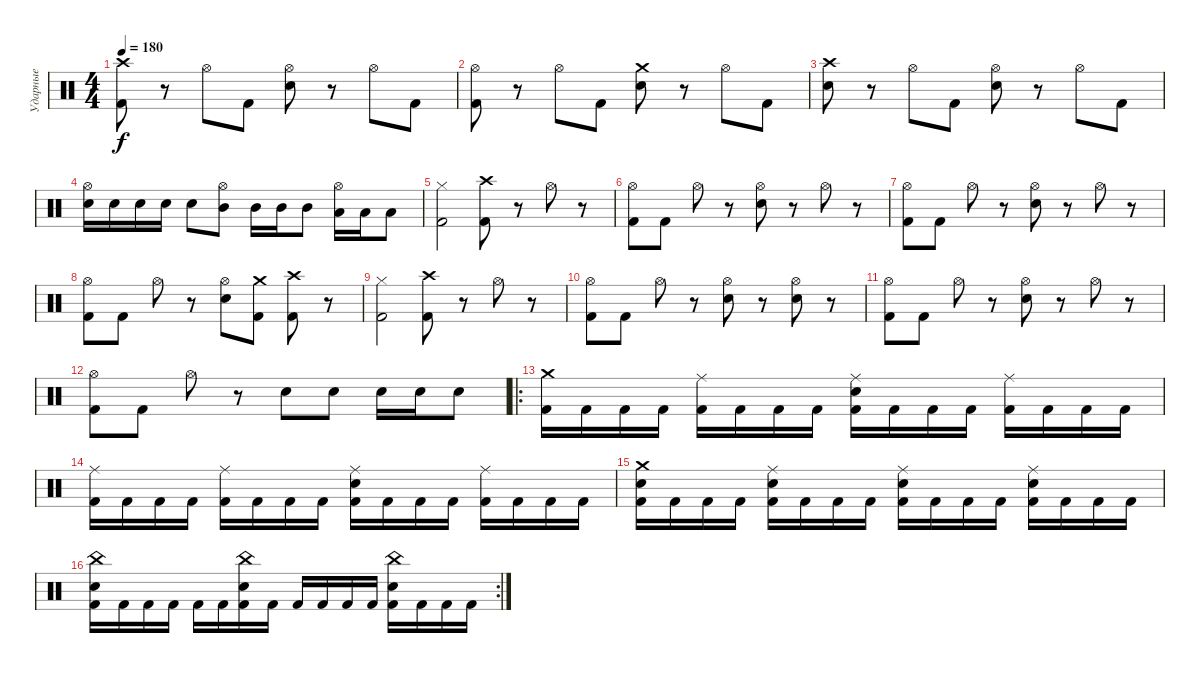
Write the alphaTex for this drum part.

\track ("Ударные" "Ударные") {instrument percussion}
\staff {score}
\articulation defaults
\ts (4 4)
\tempo 180
\clef neutral
\ks c
("Kick (hit) 2" "Crash high (hit)").8{dy f} r.8 "Hi-Hat (open)".8 "Kick (hit) 2".8 ("Electric Snare (hit)" "Hi-Hat (open)").8 r.8 "Hi-Hat (open)".8 "Kick (hit) 2".8 |
("Kick (hit) 2" "Hi-Hat (open)").8 r.8 "Hi-Hat (open)".8 "Kick (hit) 2".8 ("Electric Snare (hit)" "Crash medium (hit)").8 r.8 "Hi-Hat (open)".8 "Kick (hit) 2".8 |
("Electric Snare (hit)" "Crash high (hit)").8 r.8 "Hi-Hat (open)".8 "Kick (hit) 2".8 ("Electric Snare (hit)" "Hi-Hat (open)").8 r.8 "Hi-Hat (open)".8 "Kick (hit) 2".8 |
("Electric Snare (hit)" "Hi-Hat (open)").16 "Electric Snare (hit)".16 "Electric Snare (hit)".16 "Electric Snare (hit)".16 "Electric Snare (hit)".8 ("Mid Tom (hit)" "Hi-Hat (open)").8 "Mid Tom (hit)".16 "Mid Tom (hit)".16 "Mid Tom (hit)".8 ("Low Tom (hit)" "Hi-Hat (open)").16 "Low Tom (hit)".16 "Low Tom (hit)".8 |
("Kick (hit) 2" "Hi-Hat (closed)").2 ("Kick (hit) 2" "Crash high (hit)").8 r.8 "Hi-Hat (open)".8 r.8 |
("Kick (hit) 2" "Hi-Hat (open)").8 "Kick (hit) 2".8 "Hi-Hat (open)".8 r.8 ("Electric Snare (hit)" "Hi-Hat (open)").8 r.8 "Hi-Hat (open)".8 r.8 |
("Kick (hit) 2" "Hi-Hat (open)").8 "Kick (hit) 2".8 "Hi-Hat (open)".8 r.8 ("Electric Snare (hit)" "Hi-Hat (open)").8 r.8 "Hi-Hat (open)".8 r.8 |
("Kick (hit) 2" "Hi-Hat (open)").8 "Kick (hit) 2".8 "Hi-Hat (open)".8 r.8 ("Electric Snare (hit)" "Hi-Hat (open)").8 ("Crash medium (hit)" "Kick (hit) 2").8 ("Crash high (hit)" "Kick (hit) 2").8 r.8 |
("Kick (hit) 2" "Hi-Hat (closed)").2 ("Kick (hit) 2" "Crash high (hit)").8 r.8 "Hi-Hat (open)".8 r.8 |
("Kick (hit) 2" "Hi-Hat (open)").8 "Kick (hit) 2".8 "Hi-Hat (open)".8 r.8 ("Electric Snare (hit)" "Hi-Hat (open)").8 r.8 ("Electric Snare (hit)" "Hi-Hat (open)").8 r.8 |
("Kick (hit) 2" "Hi-Hat (open)").8 "Kick (hit) 2".8 "Hi-Hat (open)".8 r.8 ("Electric Snare (hit)" "Hi-Hat (open)").8 r.8 "Hi-Hat (open)".8 r.8 |
("Kick (hit) 2" "Hi-Hat (open)").8 "Kick (hit) 2".8 "Hi-Hat (open)".8 r.8 "Electric Snare (hit)".8 "Electric Snare (hit)".8 "Electric Snare (hit)".16 "Electric Snare (hit)".16 "Electric Snare (hit)".8 |
\ro
("Kick (hit) 2" "Crash medium (hit)").16 "Kick (hit) 2".16 "Kick (hit) 2".16 "Kick (hit) 2".16 ("Kick (hit) 2" "Ride (middle)").16 "Kick (hit) 2".16 "Kick (hit) 2".16 "Kick (hit) 2".16 ("Kick (hit) 2" "Electric Snare (hit)" "Ride (middle)").16 "Kick (hit) 2".16 "Kick (hit) 2".16 "Kick (hit) 2".16 ("Kick (hit) 2" "Ride (middle)").16 "Kick (hit) 2".16 "Kick (hit) 2".16 "Kick (hit) 2".16 |
("Kick (hit) 2" "Ride (middle)").16 "Kick (hit) 2".16 "Kick (hit) 2".16 "Kick (hit) 2".16 ("Kick (hit) 2" "Ride (middle)").16 "Kick (hit) 2".16 "Kick (hit) 2".16 "Kick (hit) 2".16 ("Kick (hit) 2" "Electric Snare (hit)" "Ride (middle)").16 "Kick (hit) 2".16 "Kick (hit) 2".16 "Kick (hit) 2".16 ("Kick (hit) 2" "Ride (middle)").16 "Kick (hit) 2".16 "Kick (hit) 2".16 "Kick (hit) 2".16 |
("Kick (hit) 2" "Electric Snare (hit)" "Crash medium (hit)").16 "Kick (hit) 2".16 "Kick (hit) 2".16 "Kick (hit) 2".16 ("Kick (hit) 2" "Electric Snare (hit)" "Ride (middle)").16 "Kick (hit) 2".16 "Kick (hit) 2".16 "Kick (hit) 2".16 ("Kick (hit) 2" "Electric Snare (hit)" "Ride (middle)").16 "Kick (hit) 2".16 "Kick (hit) 2".16 "Kick (hit) 2".16 ("Kick (hit) 2" "Electric Snare (hit)" "Ride (middle)").16 "Kick (hit) 2".16 "Kick (hit) 2".16 "Kick (hit) 2".16 |
\rc 2
("Kick (hit) 2" "Electric Snare (hit)" "China (hit)").16 "Kick (hit) 2".16 "Kick (hit) 2".16 "Kick (hit) 2".16 "Kick (hit) 2".16 "Kick (hit) 2".16 ("Kick (hit) 2" "Electric Snare (hit)" "China (hit)").16 "Kick (hit) 2".16 "Kick (hit) 2".16 "Kick (hit) 2".16 "Kick (hit) 2".16 "Kick (hit) 2".16 ("Kick (hit) 2" "Electric Snare (hit)" "China (hit)").16 "Kick (hit) 2".16 "Kick (hit) 2".16 "Kick (hit) 2".16
